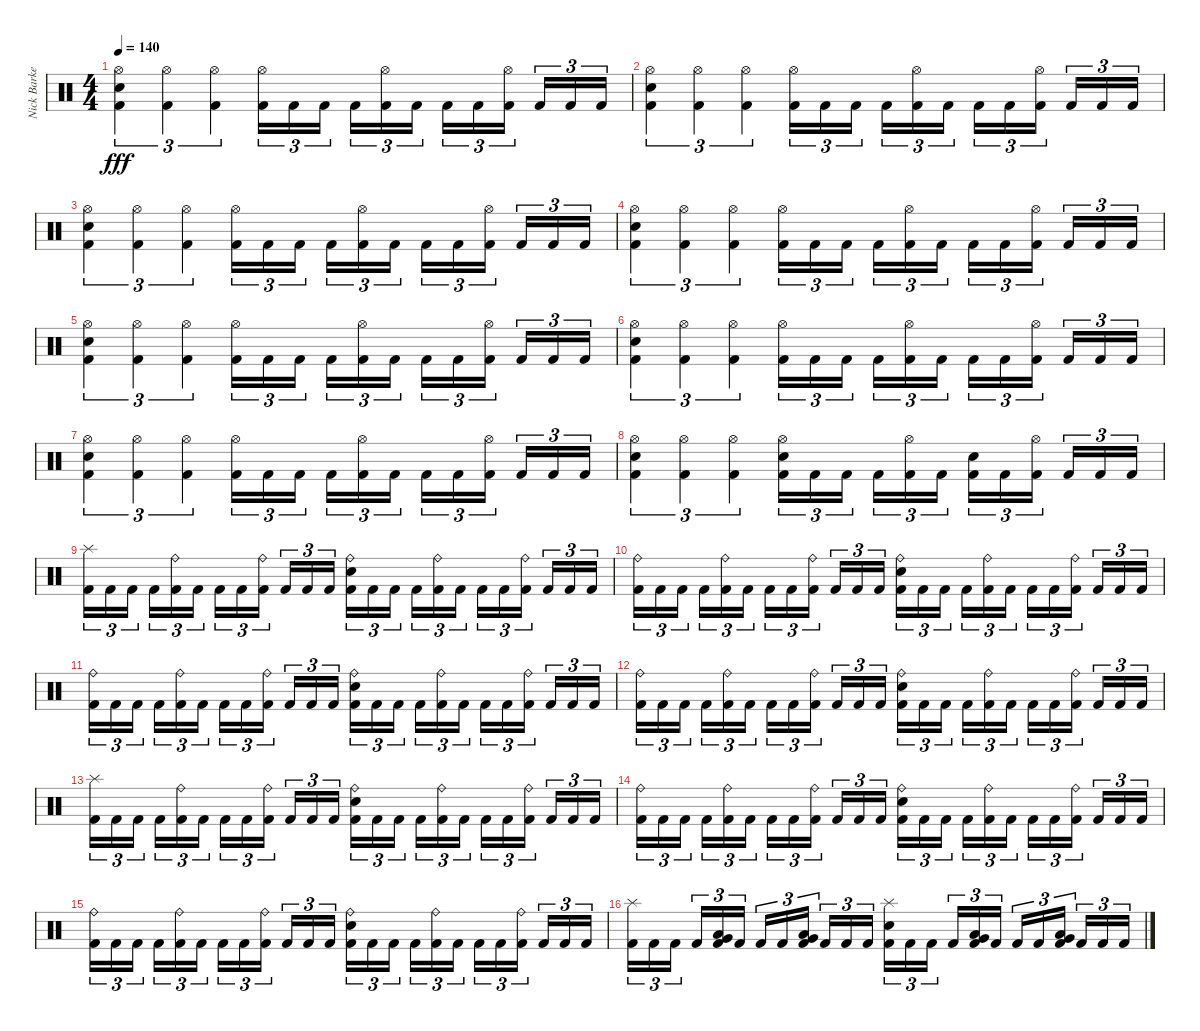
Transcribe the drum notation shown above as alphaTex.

\track ("Nick Barker - Drums - Percussion" "Nick Barke") {instrument percussion}
\staff {score}
\articulation defaults
\ts (4 4)
\tempo 140
\clef neutral
\ks c
("Kick (hit) 2" "Snare (hit) 2" "Hi-Hat (open)").4{tu (3 2) dy fff} ("Kick (hit) 2" "Hi-Hat (open)").4{tu (3 2)} ("Kick (hit) 2" "Hi-Hat (open)").4{tu (3 2)} ("Kick (hit) 2" "Hi-Hat (open)").16{tu (3 2)} "Kick (hit) 2".16{tu (3 2)} "Kick (hit) 2".16{tu (3 2)} "Kick (hit) 2".16{tu (3 2)} ("Kick (hit) 2" "Hi-Hat (open)").16{tu (3 2)} "Kick (hit) 2".16{tu (3 2)} "Kick (hit) 2".16{tu (3 2)} "Kick (hit) 2".16{tu (3 2)} ("Kick (hit) 2" "Hi-Hat (open)").16{tu (3 2)} "Kick (hit) 2".16{tu (3 2)} "Kick (hit) 2".16{tu (3 2)} "Kick (hit) 2".16{tu (3 2)} |
("Kick (hit) 2" "Snare (hit) 2" "Hi-Hat (open)").4{tu (3 2)} ("Kick (hit) 2" "Hi-Hat (open)").4{tu (3 2)} ("Kick (hit) 2" "Hi-Hat (open)").4{tu (3 2)} ("Kick (hit) 2" "Hi-Hat (open)").16{tu (3 2)} "Kick (hit) 2".16{tu (3 2)} "Kick (hit) 2".16{tu (3 2)} "Kick (hit) 2".16{tu (3 2)} ("Kick (hit) 2" "Hi-Hat (open)").16{tu (3 2)} "Kick (hit) 2".16{tu (3 2)} "Kick (hit) 2".16{tu (3 2)} "Kick (hit) 2".16{tu (3 2)} ("Kick (hit) 2" "Hi-Hat (open)").16{tu (3 2)} "Kick (hit) 2".16{tu (3 2)} "Kick (hit) 2".16{tu (3 2)} "Kick (hit) 2".16{tu (3 2)} |
("Kick (hit) 2" "Snare (hit) 2" "Hi-Hat (open)").4{tu (3 2)} ("Kick (hit) 2" "Hi-Hat (open)").4{tu (3 2)} ("Kick (hit) 2" "Hi-Hat (open)").4{tu (3 2)} ("Kick (hit) 2" "Hi-Hat (open)").16{tu (3 2)} "Kick (hit) 2".16{tu (3 2)} "Kick (hit) 2".16{tu (3 2)} "Kick (hit) 2".16{tu (3 2)} ("Kick (hit) 2" "Hi-Hat (open)").16{tu (3 2)} "Kick (hit) 2".16{tu (3 2)} "Kick (hit) 2".16{tu (3 2)} "Kick (hit) 2".16{tu (3 2)} ("Kick (hit) 2" "Hi-Hat (open)").16{tu (3 2)} "Kick (hit) 2".16{tu (3 2)} "Kick (hit) 2".16{tu (3 2)} "Kick (hit) 2".16{tu (3 2)} |
("Kick (hit) 2" "Snare (hit) 2" "Hi-Hat (open)").4{tu (3 2)} ("Kick (hit) 2" "Hi-Hat (open)").4{tu (3 2)} ("Kick (hit) 2" "Hi-Hat (open)").4{tu (3 2)} ("Kick (hit) 2" "Hi-Hat (open)").16{tu (3 2)} "Kick (hit) 2".16{tu (3 2)} "Kick (hit) 2".16{tu (3 2)} "Kick (hit) 2".16{tu (3 2)} ("Kick (hit) 2" "Hi-Hat (open)").16{tu (3 2)} "Kick (hit) 2".16{tu (3 2)} "Kick (hit) 2".16{tu (3 2)} "Kick (hit) 2".16{tu (3 2)} ("Kick (hit) 2" "Hi-Hat (open)").16{tu (3 2)} "Kick (hit) 2".16{tu (3 2)} "Kick (hit) 2".16{tu (3 2)} "Kick (hit) 2".16{tu (3 2)} |
("Kick (hit) 2" "Snare (hit) 2" "Hi-Hat (open)").4{tu (3 2)} ("Kick (hit) 2" "Hi-Hat (open)").4{tu (3 2)} ("Kick (hit) 2" "Hi-Hat (open)").4{tu (3 2)} ("Kick (hit) 2" "Hi-Hat (open)").16{tu (3 2)} "Kick (hit) 2".16{tu (3 2)} "Kick (hit) 2".16{tu (3 2)} "Kick (hit) 2".16{tu (3 2)} ("Kick (hit) 2" "Hi-Hat (open)").16{tu (3 2)} "Kick (hit) 2".16{tu (3 2)} "Kick (hit) 2".16{tu (3 2)} "Kick (hit) 2".16{tu (3 2)} ("Kick (hit) 2" "Hi-Hat (open)").16{tu (3 2)} "Kick (hit) 2".16{tu (3 2)} "Kick (hit) 2".16{tu (3 2)} "Kick (hit) 2".16{tu (3 2)} |
("Kick (hit) 2" "Snare (hit) 2" "Hi-Hat (open)").4{tu (3 2)} ("Kick (hit) 2" "Hi-Hat (open)").4{tu (3 2)} ("Kick (hit) 2" "Hi-Hat (open)").4{tu (3 2)} ("Kick (hit) 2" "Hi-Hat (open)").16{tu (3 2)} "Kick (hit) 2".16{tu (3 2)} "Kick (hit) 2".16{tu (3 2)} "Kick (hit) 2".16{tu (3 2)} ("Kick (hit) 2" "Hi-Hat (open)").16{tu (3 2)} "Kick (hit) 2".16{tu (3 2)} "Kick (hit) 2".16{tu (3 2)} "Kick (hit) 2".16{tu (3 2)} ("Kick (hit) 2" "Hi-Hat (open)").16{tu (3 2)} "Kick (hit) 2".16{tu (3 2)} "Kick (hit) 2".16{tu (3 2)} "Kick (hit) 2".16{tu (3 2)} |
("Kick (hit) 2" "Snare (hit) 2" "Hi-Hat (open)").4{tu (3 2)} ("Kick (hit) 2" "Hi-Hat (open)").4{tu (3 2)} ("Kick (hit) 2" "Hi-Hat (open)").4{tu (3 2)} ("Kick (hit) 2" "Hi-Hat (open)").16{tu (3 2)} "Kick (hit) 2".16{tu (3 2)} "Kick (hit) 2".16{tu (3 2)} "Kick (hit) 2".16{tu (3 2)} ("Kick (hit) 2" "Hi-Hat (open)").16{tu (3 2)} "Kick (hit) 2".16{tu (3 2)} "Kick (hit) 2".16{tu (3 2)} "Kick (hit) 2".16{tu (3 2)} ("Kick (hit) 2" "Hi-Hat (open)").16{tu (3 2)} "Kick (hit) 2".16{tu (3 2)} "Kick (hit) 2".16{tu (3 2)} "Kick (hit) 2".16{tu (3 2)} |
("Kick (hit) 2" "Snare (hit) 2" "Hi-Hat (open)").4{tu (3 2)} ("Kick (hit) 2" "Hi-Hat (open)").4{tu (3 2)} ("Kick (hit) 2" "Hi-Hat (open)").4{tu (3 2)} ("Kick (hit) 2" "Snare (hit) 2" "Hi-Hat (open)").16{tu (3 2)} "Kick (hit) 2".16{tu (3 2)} "Kick (hit) 2".16{tu (3 2)} "Kick (hit) 2".16{tu (3 2)} ("Kick (hit) 2" "Hi-Hat (open)").16{tu (3 2)} "Kick (hit) 2".16{tu (3 2)} ("Kick (hit) 2" "Snare (hit) 2").16{tu (3 2)} "Kick (hit) 2".16{tu (3 2)} ("Kick (hit) 2" "Hi-Hat (open)").16{tu (3 2)} "Kick (hit) 2".16{tu (3 2)} "Kick (hit) 2".16{tu (3 2)} "Kick (hit) 2".16{tu (3 2)} |
("Kick (hit) 2" "Splash (hit)").16{tu (3 2)} "Kick (hit) 2".16{tu (3 2)} "Kick (hit) 2".16{tu (3 2)} "Kick (hit) 2".16{tu (3 2)} ("Kick (hit) 2" "Ride (bell)").16{tu (3 2)} "Kick (hit) 2".16{tu (3 2)} "Kick (hit) 2".16{tu (3 2)} "Kick (hit) 2".16{tu (3 2)} ("Kick (hit) 2" "Ride (bell)").16{tu (3 2)} "Kick (hit) 2".16{tu (3 2)} "Kick (hit) 2".16{tu (3 2)} "Kick (hit) 2".16{tu (3 2)} ("Kick (hit) 2" "Snare (hit) 2" "Ride (bell)").16{tu (3 2)} "Kick (hit) 2".16{tu (3 2)} "Kick (hit) 2".16{tu (3 2)} "Kick (hit) 2".16{tu (3 2)} ("Kick (hit) 2" "Ride (bell)").16{tu (3 2)} "Kick (hit) 2".16{tu (3 2)} "Kick (hit) 2".16{tu (3 2)} "Kick (hit) 2".16{tu (3 2)} ("Kick (hit) 2" "Ride (bell)").16{tu (3 2)} "Kick (hit) 2".16{tu (3 2)} "Kick (hit) 2".16{tu (3 2)} "Kick (hit) 2".16{tu (3 2)} |
("Kick (hit) 2" "Ride (bell)").16{tu (3 2)} "Kick (hit) 2".16{tu (3 2)} "Kick (hit) 2".16{tu (3 2)} "Kick (hit) 2".16{tu (3 2)} ("Kick (hit) 2" "Ride (bell)").16{tu (3 2)} "Kick (hit) 2".16{tu (3 2)} "Kick (hit) 2".16{tu (3 2)} "Kick (hit) 2".16{tu (3 2)} ("Kick (hit) 2" "Ride (bell)").16{tu (3 2)} "Kick (hit) 2".16{tu (3 2)} "Kick (hit) 2".16{tu (3 2)} "Kick (hit) 2".16{tu (3 2)} ("Kick (hit) 2" "Snare (hit) 2" "Ride (bell)").16{tu (3 2)} "Kick (hit) 2".16{tu (3 2)} "Kick (hit) 2".16{tu (3 2)} "Kick (hit) 2".16{tu (3 2)} ("Kick (hit) 2" "Ride (bell)").16{tu (3 2)} "Kick (hit) 2".16{tu (3 2)} "Kick (hit) 2".16{tu (3 2)} "Kick (hit) 2".16{tu (3 2)} ("Kick (hit) 2" "Ride (bell)").16{tu (3 2)} "Kick (hit) 2".16{tu (3 2)} "Kick (hit) 2".16{tu (3 2)} "Kick (hit) 2".16{tu (3 2)} |
("Kick (hit) 2" "Ride (bell)").16{tu (3 2)} "Kick (hit) 2".16{tu (3 2)} "Kick (hit) 2".16{tu (3 2)} "Kick (hit) 2".16{tu (3 2)} ("Kick (hit) 2" "Ride (bell)").16{tu (3 2)} "Kick (hit) 2".16{tu (3 2)} "Kick (hit) 2".16{tu (3 2)} "Kick (hit) 2".16{tu (3 2)} ("Kick (hit) 2" "Ride (bell)").16{tu (3 2)} "Kick (hit) 2".16{tu (3 2)} "Kick (hit) 2".16{tu (3 2)} "Kick (hit) 2".16{tu (3 2)} ("Kick (hit) 2" "Snare (hit) 2" "Ride (bell)").16{tu (3 2)} "Kick (hit) 2".16{tu (3 2)} "Kick (hit) 2".16{tu (3 2)} "Kick (hit) 2".16{tu (3 2)} ("Kick (hit) 2" "Ride (bell)").16{tu (3 2)} "Kick (hit) 2".16{tu (3 2)} "Kick (hit) 2".16{tu (3 2)} "Kick (hit) 2".16{tu (3 2)} ("Kick (hit) 2" "Ride (bell)").16{tu (3 2)} "Kick (hit) 2".16{tu (3 2)} "Kick (hit) 2".16{tu (3 2)} "Kick (hit) 2".16{tu (3 2)} |
("Kick (hit) 2" "Ride (bell)").16{tu (3 2)} "Kick (hit) 2".16{tu (3 2)} "Kick (hit) 2".16{tu (3 2)} "Kick (hit) 2".16{tu (3 2)} ("Kick (hit) 2" "Ride (bell)").16{tu (3 2)} "Kick (hit) 2".16{tu (3 2)} "Kick (hit) 2".16{tu (3 2)} "Kick (hit) 2".16{tu (3 2)} ("Kick (hit) 2" "Ride (bell)").16{tu (3 2)} "Kick (hit) 2".16{tu (3 2)} "Kick (hit) 2".16{tu (3 2)} "Kick (hit) 2".16{tu (3 2)} ("Kick (hit) 2" "Snare (hit) 2" "Ride (bell)").16{tu (3 2)} "Kick (hit) 2".16{tu (3 2)} "Kick (hit) 2".16{tu (3 2)} "Kick (hit) 2".16{tu (3 2)} ("Kick (hit) 2" "Ride (bell)").16{tu (3 2)} "Kick (hit) 2".16{tu (3 2)} "Kick (hit) 2".16{tu (3 2)} "Kick (hit) 2".16{tu (3 2)} ("Kick (hit) 2" "Ride (bell)").16{tu (3 2)} "Kick (hit) 2".16{tu (3 2)} "Kick (hit) 2".16{tu (3 2)} "Kick (hit) 2".16{tu (3 2)} |
("Kick (hit) 2" "Splash (hit)").16{tu (3 2)} "Kick (hit) 2".16{tu (3 2)} "Kick (hit) 2".16{tu (3 2)} "Kick (hit) 2".16{tu (3 2)} ("Kick (hit) 2" "Ride (bell)").16{tu (3 2)} "Kick (hit) 2".16{tu (3 2)} "Kick (hit) 2".16{tu (3 2)} "Kick (hit) 2".16{tu (3 2)} ("Kick (hit) 2" "Ride (bell)").16{tu (3 2)} "Kick (hit) 2".16{tu (3 2)} "Kick (hit) 2".16{tu (3 2)} "Kick (hit) 2".16{tu (3 2)} ("Kick (hit) 2" "Snare (hit) 2" "Ride (bell)").16{tu (3 2)} "Kick (hit) 2".16{tu (3 2)} "Kick (hit) 2".16{tu (3 2)} "Kick (hit) 2".16{tu (3 2)} ("Kick (hit) 2" "Ride (bell)").16{tu (3 2)} "Kick (hit) 2".16{tu (3 2)} "Kick (hit) 2".16{tu (3 2)} "Kick (hit) 2".16{tu (3 2)} ("Kick (hit) 2" "Ride (bell)").16{tu (3 2)} "Kick (hit) 2".16{tu (3 2)} "Kick (hit) 2".16{tu (3 2)} "Kick (hit) 2".16{tu (3 2)} |
("Kick (hit) 2" "Ride (bell)").16{tu (3 2)} "Kick (hit) 2".16{tu (3 2)} "Kick (hit) 2".16{tu (3 2)} "Kick (hit) 2".16{tu (3 2)} ("Kick (hit) 2" "Ride (bell)").16{tu (3 2)} "Kick (hit) 2".16{tu (3 2)} "Kick (hit) 2".16{tu (3 2)} "Kick (hit) 2".16{tu (3 2)} ("Kick (hit) 2" "Ride (bell)").16{tu (3 2)} "Kick (hit) 2".16{tu (3 2)} "Kick (hit) 2".16{tu (3 2)} "Kick (hit) 2".16{tu (3 2)} ("Kick (hit) 2" "Snare (hit) 2" "Ride (bell)").16{tu (3 2)} "Kick (hit) 2".16{tu (3 2)} "Kick (hit) 2".16{tu (3 2)} "Kick (hit) 2".16{tu (3 2)} ("Kick (hit) 2" "Ride (bell)").16{tu (3 2)} "Kick (hit) 2".16{tu (3 2)} "Kick (hit) 2".16{tu (3 2)} "Kick (hit) 2".16{tu (3 2)} ("Kick (hit) 2" "Ride (bell)").16{tu (3 2)} "Kick (hit) 2".16{tu (3 2)} "Kick (hit) 2".16{tu (3 2)} "Kick (hit) 2".16{tu (3 2)} |
("Kick (hit) 2" "Ride (bell)").16{tu (3 2)} "Kick (hit) 2".16{tu (3 2)} "Kick (hit) 2".16{tu (3 2)} "Kick (hit) 2".16{tu (3 2)} ("Kick (hit) 2" "Ride (bell)").16{tu (3 2)} "Kick (hit) 2".16{tu (3 2)} "Kick (hit) 2".16{tu (3 2)} "Kick (hit) 2".16{tu (3 2)} ("Kick (hit) 2" "Ride (bell)").16{tu (3 2)} "Kick (hit) 2".16{tu (3 2)} "Kick (hit) 2".16{tu (3 2)} "Kick (hit) 2".16{tu (3 2)} ("Kick (hit) 2" "Snare (hit) 2" "Ride (bell)").16{tu (3 2)} "Kick (hit) 2".16{tu (3 2)} "Kick (hit) 2".16{tu (3 2)} "Kick (hit) 2".16{tu (3 2)} ("Kick (hit) 2" "Ride (bell)").16{tu (3 2)} "Kick (hit) 2".16{tu (3 2)} "Kick (hit) 2".16{tu (3 2)} "Kick (hit) 2".16{tu (3 2)} ("Kick (hit) 2" "Ride (bell)").16{tu (3 2)} "Kick (hit) 2".16{tu (3 2)} "Kick (hit) 2".16{tu (3 2)} "Kick (hit) 2".16{tu (3 2)} |
("Kick (hit) 2" "Splash (hit)").16{tu (3 2)} "Kick (hit) 2".16{tu (3 2)} "Kick (hit) 2".16{tu (3 2)} "Kick (hit) 2".16{tu (3 2)} ("Kick (hit) 2" "Low Floor Tom (hit)" "Very Low Tom (hit)").16{tu (3 2)} "Kick (hit) 2".16{tu (3 2)} "Kick (hit) 2".16{tu (3 2)} "Kick (hit) 2".16{tu (3 2)} ("Kick (hit) 2" "Low Floor Tom (hit)" "Very Low Tom (hit)").16{tu (3 2)} "Kick (hit) 2".16{tu (3 2)} "Kick (hit) 2".16{tu (3 2)} "Kick (hit) 2".16{tu (3 2)} ("Kick (hit) 2" "Snare (hit) 2" "Splash (hit)").16{tu (3 2)} "Kick (hit) 2".16{tu (3 2)} "Kick (hit) 2".16{tu (3 2)} "Kick (hit) 2".16{tu (3 2)} ("Kick (hit) 2" "Low Floor Tom (hit)" "Very Low Tom (hit)").16{tu (3 2)} "Kick (hit) 2".16{tu (3 2)} "Kick (hit) 2".16{tu (3 2)} "Kick (hit) 2".16{tu (3 2)} ("Kick (hit) 2" "Low Floor Tom (hit)" "Very Low Tom (hit)").16{tu (3 2)} "Kick (hit) 2".16{tu (3 2)} "Kick (hit) 2".16{tu (3 2)} "Kick (hit) 2".16{tu (3 2)}
